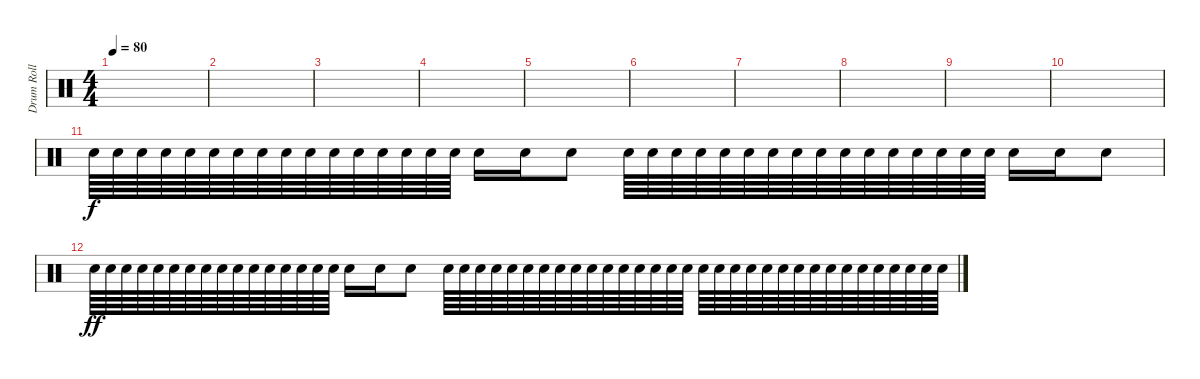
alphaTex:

\track ("Drum Roll" "Drum Roll") {instrument percussion}
\staff {score}
\articulation defaults
\ts (4 4)
\tempo 80
\clef neutral
\ks c
|
|
|
|
|
|
|
|
|
|
"Snare (hit) 2".64 "Snare (hit) 2".64 "Snare (hit) 2".64 "Snare (hit) 2".64 "Snare (hit) 2".64 "Snare (hit) 2".64 "Snare (hit) 2".64 "Snare (hit) 2".64 "Snare (hit) 2".64 "Snare (hit) 2".64 "Snare (hit) 2".64 "Snare (hit) 2".64 "Snare (hit) 2".64 "Snare (hit) 2".64 "Snare (hit) 2".64 "Snare (hit) 2".64 "Snare (hit) 2".16 "Snare (hit) 2".16 "Snare (hit) 2".8 "Snare (hit) 2".64 "Snare (hit) 2".64 "Snare (hit) 2".64 "Snare (hit) 2".64 "Snare (hit) 2".64 "Snare (hit) 2".64 "Snare (hit) 2".64 "Snare (hit) 2".64 "Snare (hit) 2".64 "Snare (hit) 2".64 "Snare (hit) 2".64 "Snare (hit) 2".64 "Snare (hit) 2".64 "Snare (hit) 2".64 "Snare (hit) 2".64 "Snare (hit) 2".64 "Snare (hit) 2".16 "Snare (hit) 2".16 "Snare (hit) 2".8 |
"Snare (hit) 2".64{dy ff} "Snare (hit) 2".64 "Snare (hit) 2".64 "Snare (hit) 2".64 "Snare (hit) 2".64 "Snare (hit) 2".64 "Snare (hit) 2".64 "Snare (hit) 2".64 "Snare (hit) 2".64 "Snare (hit) 2".64 "Snare (hit) 2".64 "Snare (hit) 2".64 "Snare (hit) 2".64 "Snare (hit) 2".64 "Snare (hit) 2".64 "Snare (hit) 2".64 "Snare (hit) 2".16 "Snare (hit) 2".16 "Snare (hit) 2".8 "Snare (hit) 2".64 "Snare (hit) 2".64 "Snare (hit) 2".64 "Snare (hit) 2".64 "Snare (hit) 2".64 "Snare (hit) 2".64 "Snare (hit) 2".64 "Snare (hit) 2".64 "Snare (hit) 2".64 "Snare (hit) 2".64 "Snare (hit) 2".64 "Snare (hit) 2".64 "Snare (hit) 2".64 "Snare (hit) 2".64 "Snare (hit) 2".64 "Snare (hit) 2".64 "Snare (hit) 2".64 "Snare (hit) 2".64 "Snare (hit) 2".64 "Snare (hit) 2".64 "Snare (hit) 2".64 "Snare (hit) 2".64 "Snare (hit) 2".64 "Snare (hit) 2".64 "Snare (hit) 2".64 "Snare (hit) 2".64 "Snare (hit) 2".64 "Snare (hit) 2".64 "Snare (hit) 2".64 "Snare (hit) 2".64 "Snare (hit) 2".64 "Snare (hit) 2".64
